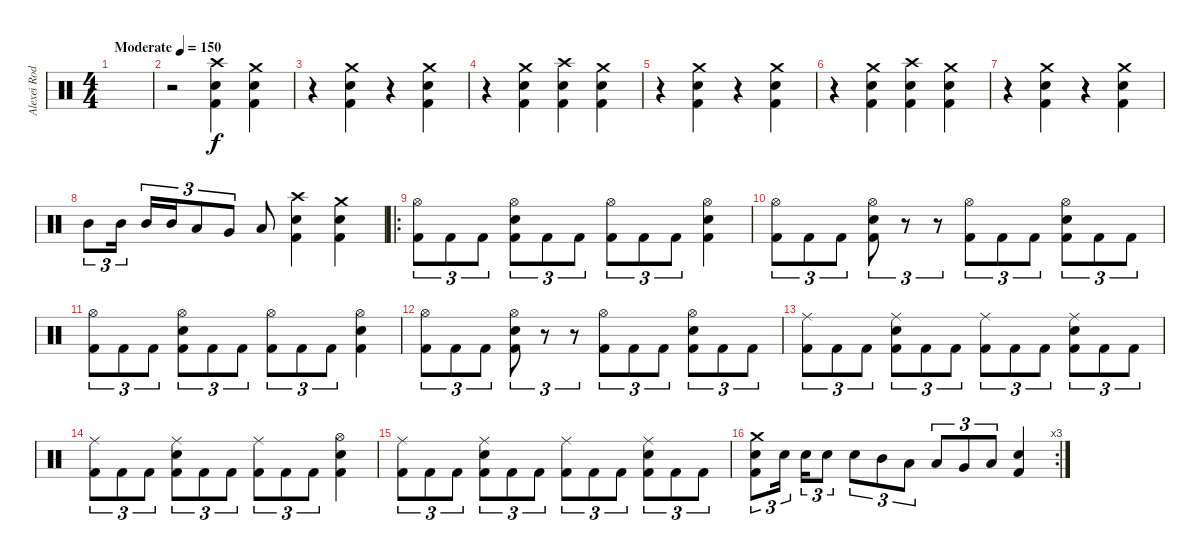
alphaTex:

\track ("Alexei Rodriguez" "Alexei Rod") {instrument percussion}
\staff {score}
\articulation defaults
\ts (4 4)
\tempo (150 "Moderate")
\clef neutral
\ks c
|
r.2 ("Crash high (hit)" "Electric Snare (hit)" "Kick (hit) 2").4 ("Crash medium (hit)" "Electric Snare (hit)" "Kick (hit) 2").4 |
r.4 ("Crash medium (hit)" "Electric Snare (hit)" "Kick (hit) 2").4 r.4 ("Crash medium (hit)" "Electric Snare (hit)" "Kick (hit) 2").4 |
r.4 ("Crash medium (hit)" "Electric Snare (hit)" "Kick (hit) 2").4 ("Crash high (hit)" "Electric Snare (hit)" "Kick (hit) 2").4 ("Crash medium (hit)" "Electric Snare (hit)" "Kick (hit) 2").4 |
r.4 ("Crash medium (hit)" "Electric Snare (hit)" "Kick (hit) 2").4 r.4 ("Crash medium (hit)" "Electric Snare (hit)" "Kick (hit) 2").4 |
r.4 ("Crash medium (hit)" "Electric Snare (hit)" "Kick (hit) 2").4 ("Crash high (hit)" "Electric Snare (hit)" "Kick (hit) 2").4 ("Crash medium (hit)" "Electric Snare (hit)" "Kick (hit) 2").4 |
r.4 ("Crash medium (hit)" "Electric Snare (hit)" "Kick (hit) 2").4 r.4 ("Crash medium (hit)" "Electric Snare (hit)" "Kick (hit) 2").4 |
"Mid Tom (hit)".8{tu (3 2)} "Mid Tom (hit)".16{tu (3 2) beam splitsecondary} "Mid Tom (hit)".16{tu (3 2)} "Mid Tom (hit)".16{tu (3 2)} "Low Tom (hit)".8{tu (3 2)} "Very Low Tom (hit)".8{tu (3 2)} "Low Floor Tom (hit)".8 ("Crash high (hit)" "Electric Snare (hit)" "Kick (hit) 2").4 ("Crash medium (hit)" "Electric Snare (hit)" "Kick (hit) 2").4 |
\ro
("Hi-Hat (open)" "Kick (hit) 2").8{tu (3 2)} "Kick (hit) 2".8{tu (3 2)} "Kick (hit) 2".8{tu (3 2)} ("Hi-Hat (open)" "Electric Snare (hit)" "Kick (hit) 2").8{tu (3 2)} "Kick (hit) 2".8{tu (3 2)} "Kick (hit) 2".8{tu (3 2)} ("Hi-Hat (open)" "Kick (hit) 2").8{tu (3 2)} "Kick (hit) 2".8{tu (3 2)} "Kick (hit) 2".8{tu (3 2)} ("Hi-Hat (open)" "Electric Snare (hit)" "Kick (hit) 2").4 |
("Hi-Hat (open)" "Kick (hit) 2").8{tu (3 2)} "Kick (hit) 2".8{tu (3 2)} "Kick (hit) 2".8{tu (3 2)} ("Hi-Hat (open)" "Electric Snare (hit)" "Kick (hit) 2").8{tu (3 2)} r.8{tu (3 2)} r.8{tu (3 2)} ("Hi-Hat (open)" "Kick (hit) 2").8{tu (3 2)} "Kick (hit) 2".8{tu (3 2)} "Kick (hit) 2".8{tu (3 2)} ("Hi-Hat (open)" "Electric Snare (hit)" "Kick (hit) 2").8{tu (3 2)} "Kick (hit) 2".8{tu (3 2)} "Kick (hit) 2".8{tu (3 2)} |
("Hi-Hat (open)" "Kick (hit) 2").8{tu (3 2)} "Kick (hit) 2".8{tu (3 2)} "Kick (hit) 2".8{tu (3 2)} ("Hi-Hat (open)" "Electric Snare (hit)" "Kick (hit) 2").8{tu (3 2)} "Kick (hit) 2".8{tu (3 2)} "Kick (hit) 2".8{tu (3 2)} ("Hi-Hat (open)" "Kick (hit) 2").8{tu (3 2)} "Kick (hit) 2".8{tu (3 2)} "Kick (hit) 2".8{tu (3 2)} ("Hi-Hat (open)" "Electric Snare (hit)" "Kick (hit) 2").4 |
("Hi-Hat (open)" "Kick (hit) 2").8{tu (3 2)} "Kick (hit) 2".8{tu (3 2)} "Kick (hit) 2".8{tu (3 2)} ("Hi-Hat (open)" "Electric Snare (hit)" "Kick (hit) 2").8{tu (3 2)} r.8{tu (3 2)} r.8{tu (3 2)} ("Hi-Hat (open)" "Kick (hit) 2").8{tu (3 2)} "Kick (hit) 2".8{tu (3 2)} "Kick (hit) 2".8{tu (3 2)} ("Hi-Hat (open)" "Electric Snare (hit)" "Kick (hit) 2").8{tu (3 2)} "Kick (hit) 2".8{tu (3 2)} "Kick (hit) 2".8{tu (3 2)} |
("Ride (middle)" "Kick (hit) 2").8{tu (3 2)} "Kick (hit) 2".8{tu (3 2)} "Kick (hit) 2".8{tu (3 2)} ("Ride (middle)" "Electric Snare (hit)" "Kick (hit) 2").8{tu (3 2)} "Kick (hit) 2".8{tu (3 2)} "Kick (hit) 2".8{tu (3 2)} ("Ride (middle)" "Kick (hit) 2").8{tu (3 2)} "Kick (hit) 2".8{tu (3 2)} "Kick (hit) 2".8{tu (3 2)} ("Ride (middle)" "Electric Snare (hit)" "Kick (hit) 2").8{tu (3 2)} "Kick (hit) 2".8{tu (3 2)} "Kick (hit) 2".8{tu (3 2)} |
("Ride (middle)" "Kick (hit) 2").8{tu (3 2)} "Kick (hit) 2".8{tu (3 2)} "Kick (hit) 2".8{tu (3 2)} ("Ride (middle)" "Electric Snare (hit)" "Kick (hit) 2").8{tu (3 2)} "Kick (hit) 2".8{tu (3 2)} "Kick (hit) 2".8{tu (3 2)} ("Ride (middle)" "Kick (hit) 2").8{tu (3 2)} "Kick (hit) 2".8{tu (3 2)} "Kick (hit) 2".8{tu (3 2)} ("Hi-Hat (open)" "Electric Snare (hit)" "Kick (hit) 2").4 |
("Ride (middle)" "Kick (hit) 2").8{tu (3 2)} "Kick (hit) 2".8{tu (3 2)} "Kick (hit) 2".8{tu (3 2)} ("Ride (middle)" "Electric Snare (hit)" "Kick (hit) 2").8{tu (3 2)} "Kick (hit) 2".8{tu (3 2)} "Kick (hit) 2".8{tu (3 2)} ("Ride (middle)" "Kick (hit) 2").8{tu (3 2)} "Kick (hit) 2".8{tu (3 2)} "Kick (hit) 2".8{tu (3 2)} ("Ride (middle)" "Electric Snare (hit)" "Kick (hit) 2").8{tu (3 2)} "Kick (hit) 2".8{tu (3 2)} "Kick (hit) 2".8{tu (3 2)} |
\rc 3
("Crash medium (hit)" "Electric Snare (hit)" "Kick (hit) 2").8{tu (3 2)} "Electric Snare (hit)".16{tu (3 2) beam splitsecondary} "Electric Snare (hit)".16{tu (3 2)} "Electric Snare (hit)".8{tu (3 2)} "Electric Snare (hit)".8{tu (3 2)} "Mid Tom (hit)".8{tu (3 2)} "Low Tom (hit)".8{tu (3 2)} "Low Tom (hit)".8{tu (3 2)} "Very Low Tom (hit)".8{tu (3 2)} "Low Floor Tom (hit)".8{tu (3 2)} ("Electric Snare (hit)" "Kick (hit) 2").4
